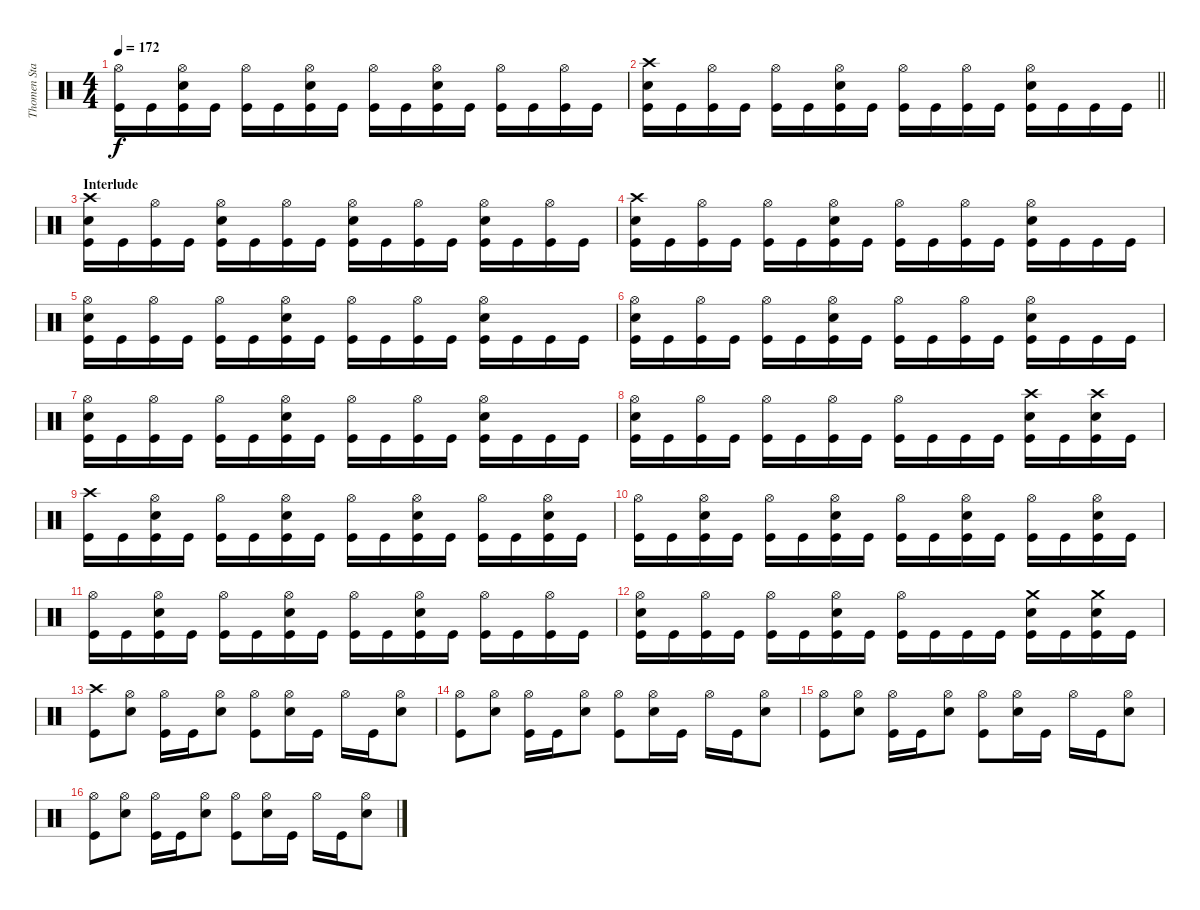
\track ("Thomen Stauch" "Thomen Sta") {instrument percussion}
\staff {score}
\articulation defaults
\ts (4 4)
\tempo 172
\clef neutral
\ks c
("Hi-Hat (open)" "Kick (hit)").16{dy f} "Kick (hit)".16 ("Hi-Hat (open)" "Snare (hit) 2" "Kick (hit)").16 "Kick (hit)".16 ("Hi-Hat (open)" "Kick (hit)").16 "Kick (hit)".16 ("Hi-Hat (open)" "Snare (hit) 2" "Kick (hit)").16 "Kick (hit)".16 ("Hi-Hat (open)" "Kick (hit)").16 "Kick (hit)".16 ("Hi-Hat (open)" "Snare (hit) 2" "Kick (hit)").16 "Kick (hit)".16 ("Hi-Hat (open)" "Kick (hit)").16 "Kick (hit)".16 ("Hi-Hat (open)" "Kick (hit)").16 "Kick (hit)".16 |
\barLineRight lightlight
("Crash high (hit)" "Snare (hit) 2" "Kick (hit)").16 "Kick (hit)".16 ("Hi-Hat (open)" "Kick (hit)").16 "Kick (hit)".16 ("Hi-Hat (open)" "Kick (hit)").16 "Kick (hit)".16 ("Hi-Hat (open)" "Snare (hit) 2" "Kick (hit)").16 "Kick (hit)".16 ("Hi-Hat (open)" "Kick (hit)").16 "Kick (hit)".16 ("Hi-Hat (open)" "Kick (hit)").16 "Kick (hit)".16 ("Hi-Hat (open)" "Snare (hit) 2" "Kick (hit)").16 "Kick (hit)".16 "Kick (hit)".16 "Kick (hit)".16 |
\section ("" "Interlude")
("Crash high (hit)" "Snare (hit) 2" "Kick (hit)").16 "Kick (hit)".16 ("Hi-Hat (open)" "Kick (hit)").16 "Kick (hit)".16 ("Hi-Hat (open)" "Snare (hit) 2" "Kick (hit)").16 "Kick (hit)".16 ("Hi-Hat (open)" "Kick (hit)").16 "Kick (hit)".16 ("Hi-Hat (open)" "Snare (hit) 2" "Kick (hit)").16 "Kick (hit)".16 ("Hi-Hat (open)" "Kick (hit)").16 "Kick (hit)".16 ("Hi-Hat (open)" "Snare (hit) 2" "Kick (hit)").16 "Kick (hit)".16 ("Hi-Hat (open)" "Kick (hit)").16 "Kick (hit)".16 |
("Crash high (hit)" "Snare (hit) 2" "Kick (hit)").16 "Kick (hit)".16 ("Hi-Hat (open)" "Kick (hit)").16 "Kick (hit)".16 ("Hi-Hat (open)" "Kick (hit)").16 "Kick (hit)".16 ("Hi-Hat (open)" "Snare (hit) 2" "Kick (hit)").16 "Kick (hit)".16 ("Hi-Hat (open)" "Kick (hit)").16 "Kick (hit)".16 ("Hi-Hat (open)" "Kick (hit)").16 "Kick (hit)".16 ("Hi-Hat (open)" "Snare (hit) 2" "Kick (hit)").16 "Kick (hit)".16 "Kick (hit)".16 "Kick (hit)".16 |
("Hi-Hat (open)" "Snare (hit) 2" "Kick (hit)").16 "Kick (hit)".16 ("Hi-Hat (open)" "Kick (hit)").16 "Kick (hit)".16 ("Hi-Hat (open)" "Kick (hit)").16 "Kick (hit)".16 ("Hi-Hat (open)" "Snare (hit) 2" "Kick (hit)").16 "Kick (hit)".16 ("Hi-Hat (open)" "Kick (hit)").16 "Kick (hit)".16 ("Hi-Hat (open)" "Kick (hit)").16 "Kick (hit)".16 ("Hi-Hat (open)" "Snare (hit) 2" "Kick (hit)").16 "Kick (hit)".16 "Kick (hit)".16 "Kick (hit)".16 |
("Hi-Hat (open)" "Snare (hit) 2" "Kick (hit)").16 "Kick (hit)".16 ("Hi-Hat (open)" "Kick (hit)").16 "Kick (hit)".16 ("Hi-Hat (open)" "Kick (hit)").16 "Kick (hit)".16 ("Hi-Hat (open)" "Snare (hit) 2" "Kick (hit)").16 "Kick (hit)".16 ("Hi-Hat (open)" "Kick (hit)").16 "Kick (hit)".16 ("Hi-Hat (open)" "Kick (hit)").16 "Kick (hit)".16 ("Hi-Hat (open)" "Snare (hit) 2" "Kick (hit)").16 "Kick (hit)".16 "Kick (hit)".16 "Kick (hit)".16 |
("Hi-Hat (open)" "Snare (hit) 2" "Kick (hit)").16 "Kick (hit)".16 ("Hi-Hat (open)" "Kick (hit)").16 "Kick (hit)".16 ("Hi-Hat (open)" "Kick (hit)").16 "Kick (hit)".16 ("Hi-Hat (open)" "Snare (hit) 2" "Kick (hit)").16 "Kick (hit)".16 ("Hi-Hat (open)" "Kick (hit)").16 "Kick (hit)".16 ("Hi-Hat (open)" "Kick (hit)").16 "Kick (hit)".16 ("Hi-Hat (open)" "Snare (hit) 2" "Kick (hit)").16 "Kick (hit)".16 "Kick (hit)".16 "Kick (hit)".16 |
("Hi-Hat (open)" "Snare (hit) 2" "Kick (hit)").16 "Kick (hit)".16 ("Hi-Hat (open)" "Kick (hit)").16 "Kick (hit)".16 ("Hi-Hat (open)" "Kick (hit)").16 "Kick (hit)".16 ("Hi-Hat (open)" "Kick (hit)").16 "Kick (hit)".16 ("Hi-Hat (open)" "Kick (hit)").16 "Kick (hit)".16 "Kick (hit)".16 "Kick (hit)".16 ("Crash high (hit)" "Snare (hit) 2" "Kick (hit)").16 "Kick (hit)".16 ("Crash high (hit)" "Snare (hit) 2" "Kick (hit)").16 "Kick (hit)".16 |
("Crash high (hit)" "Kick (hit)").16 "Kick (hit)".16 ("Hi-Hat (open)" "Snare (hit) 2" "Kick (hit)").16 "Kick (hit)".16 ("Hi-Hat (open)" "Kick (hit)").16 "Kick (hit)".16 ("Hi-Hat (open)" "Snare (hit) 2" "Kick (hit)").16 "Kick (hit)".16 ("Hi-Hat (open)" "Kick (hit)").16 "Kick (hit)".16 ("Hi-Hat (open)" "Snare (hit) 2" "Kick (hit)").16 "Kick (hit)".16 ("Hi-Hat (open)" "Kick (hit)").16 "Kick (hit)".16 ("Hi-Hat (open)" "Snare (hit) 2" "Kick (hit)").16 "Kick (hit)".16 |
("Hi-Hat (open)" "Kick (hit)").16 "Kick (hit)".16 ("Hi-Hat (open)" "Snare (hit) 2" "Kick (hit)").16 "Kick (hit)".16 ("Hi-Hat (open)" "Kick (hit)").16 "Kick (hit)".16 ("Hi-Hat (open)" "Snare (hit) 2" "Kick (hit)").16 "Kick (hit)".16 ("Hi-Hat (open)" "Kick (hit)").16 "Kick (hit)".16 ("Hi-Hat (open)" "Snare (hit) 2" "Kick (hit)").16 "Kick (hit)".16 ("Hi-Hat (open)" "Kick (hit)").16 "Kick (hit)".16 ("Hi-Hat (open)" "Snare (hit) 2" "Kick (hit)").16 "Kick (hit)".16 |
("Hi-Hat (open)" "Kick (hit)").16 "Kick (hit)".16 ("Hi-Hat (open)" "Snare (hit) 2" "Kick (hit)").16 "Kick (hit)".16 ("Hi-Hat (open)" "Kick (hit)").16 "Kick (hit)".16 ("Hi-Hat (open)" "Snare (hit) 2" "Kick (hit)").16 "Kick (hit)".16 ("Hi-Hat (open)" "Kick (hit)").16 "Kick (hit)".16 ("Hi-Hat (open)" "Snare (hit) 2" "Kick (hit)").16 "Kick (hit)".16 ("Hi-Hat (open)" "Kick (hit)").16 "Kick (hit)".16 ("Hi-Hat (open)" "Kick (hit)").16 "Kick (hit)".16 |
("Hi-Hat (open)" "Snare (hit) 2" "Kick (hit)").16 "Kick (hit)".16 ("Hi-Hat (open)" "Kick (hit)").16 "Kick (hit)".16 ("Hi-Hat (open)" "Kick (hit)").16 "Kick (hit)".16 ("Hi-Hat (open)" "Snare (hit) 2" "Kick (hit)").16 "Kick (hit)".16 ("Hi-Hat (open)" "Kick (hit)").16 "Kick (hit)".16 "Kick (hit)".16 "Kick (hit)".16 ("Crash medium (hit)" "Snare (hit) 2" "Kick (hit)").16 "Kick (hit)".16 ("Crash medium (hit)" "Snare (hit) 2" "Kick (hit)").16 "Kick (hit)".16 |
("Crash high (hit)" "Kick (hit)").8 ("Hi-Hat (open)" "Snare (hit) 2").8 ("Hi-Hat (open)" "Kick (hit)").16 "Kick (hit)".16 ("Hi-Hat (open)" "Snare (hit) 2").8 ("Hi-Hat (open)" "Kick (hit)").8 ("Hi-Hat (open)" "Snare (hit) 2").16 "Kick (hit)".16 "Hi-Hat (open)".16 "Kick (hit)".16 ("Hi-Hat (open)" "Snare (hit) 2").8 |
("Hi-Hat (open)" "Kick (hit)").8 ("Hi-Hat (open)" "Snare (hit) 2").8 ("Hi-Hat (open)" "Kick (hit)").16 "Kick (hit)".16 ("Hi-Hat (open)" "Snare (hit) 2").8 ("Hi-Hat (open)" "Kick (hit)").8 ("Hi-Hat (open)" "Snare (hit) 2").16 "Kick (hit)".16 "Hi-Hat (open)".16 "Kick (hit)".16 ("Hi-Hat (open)" "Snare (hit) 2").8 |
("Hi-Hat (open)" "Kick (hit)").8 ("Hi-Hat (open)" "Snare (hit) 2").8 ("Hi-Hat (open)" "Kick (hit)").16 "Kick (hit)".16 ("Hi-Hat (open)" "Snare (hit) 2").8 ("Hi-Hat (open)" "Kick (hit)").8 ("Hi-Hat (open)" "Snare (hit) 2").16 "Kick (hit)".16 "Hi-Hat (open)".16 "Kick (hit)".16 ("Hi-Hat (open)" "Snare (hit) 2").8 |
("Hi-Hat (open)" "Kick (hit)").8 ("Hi-Hat (open)" "Snare (hit) 2").8 ("Hi-Hat (open)" "Kick (hit)").16 "Kick (hit)".16 ("Hi-Hat (open)" "Snare (hit) 2").8 ("Hi-Hat (open)" "Kick (hit)").8 ("Hi-Hat (open)" "Snare (hit) 2").16 "Kick (hit)".16 "Hi-Hat (open)".16 "Kick (hit)".16 ("Hi-Hat (open)" "Snare (hit) 2").8
